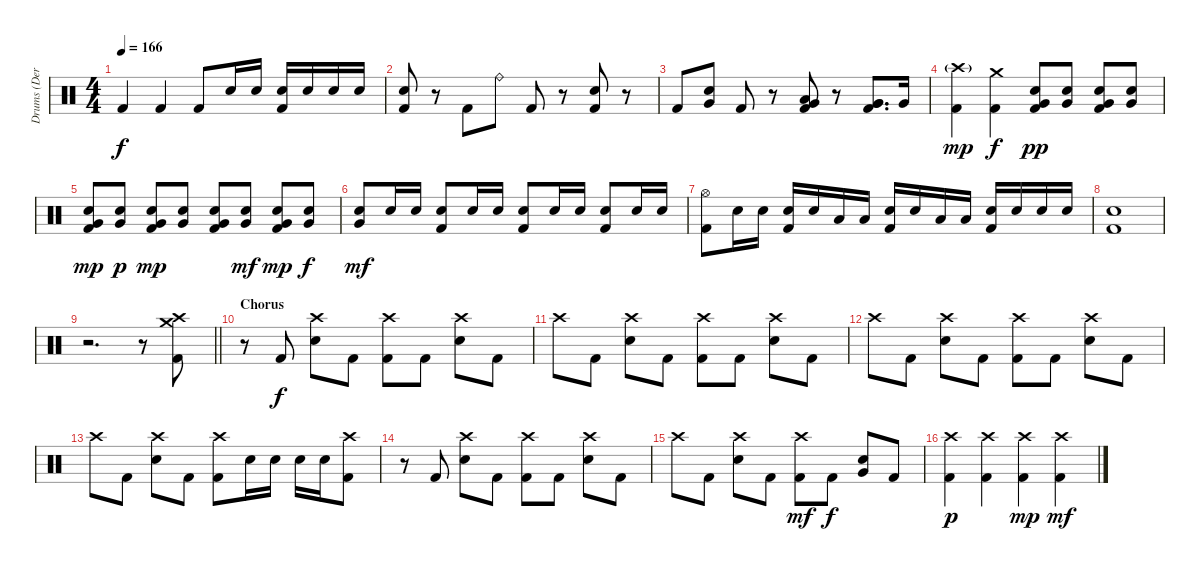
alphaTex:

\track ("Drums (Derek)" "Drums (Der") {instrument percussion}
\staff {score}
\articulation defaults
\ts (4 4)
\tempo 166
\clef neutral
\ks c "Kick (hit) 2".4{dy f} "Kick (hit) 2".4 "Kick (hit) 2".8 "Electric Snare (hit)".16 "Electric Snare (hit)".16
("Electric Snare (hit)" "Kick (hit) 2").16 "Electric Snare (hit)".16 "Electric Snare (hit)".16 "Electric Snare (hit)".16 |
("Electric Snare (hit)" "Kick (hit) 2").8 r.8 "Kick (hit) 2".8 "Ride (bell)".8 "Kick (hit) 2".8 r.8 ("Electric Snare (hit)" "Kick (hit) 2").8 r.8 |
"Kick (hit) 2".8 ("Very Low Tom (hit)" "Electric Snare (hit)").8 "Kick (hit) 2".8 r.8 ("Very Low Tom (hit)" "Low Tom (hit)" "Kick (hit) 2").8 r.8 ("Very Low Tom (hit)" "Very Low Tom (hit)" "Kick (hit) 2").8{d} "Very Low Tom (hit)".16 |
("Crash high (hit)"{g} "Kick (hit) 2").4{dy mp} ("Crash medium (hit)" "Kick (hit) 2").4{dy f} ("Very Low Tom (hit)" "Electric Snare (hit)" "Kick (hit) 2").8{dy pp} ("Very Low Tom (hit)" "Electric Snare (hit)").8 ("Very Low Tom (hit)" "Electric Snare (hit)" "Kick (hit) 2").8 ("Very Low Tom (hit)" "Electric Snare (hit)").8 |
("Very Low Tom (hit)" "Electric Snare (hit)" "Kick (hit) 2").8{dy mp} ("Very Low Tom (hit)" "Electric Snare (hit)").8{dy p} ("Very Low Tom (hit)" "Electric Snare (hit)" "Kick (hit) 2").8{dy mp} ("Very Low Tom (hit)" "Electric Snare (hit)").8 ("Very Low Tom (hit)" "Electric Snare (hit)" "Kick (hit) 2").8 ("Very Low Tom (hit)" "Electric Snare (hit)").8{dy mf} ("Very Low Tom (hit)" "Electric Snare (hit)" "Kick (hit) 2").8{dy mp} ("Very Low Tom (hit)" "Electric Snare (hit)").8{dy f} |
("Very Low Tom (hit)" "Electric Snare (hit)").8{dy mf} "Electric Snare (hit)".16 "Electric Snare (hit)".16 ("Electric Snare (hit)" "Kick (hit) 2").8 "Electric Snare (hit)".16 "Electric Snare (hit)".16 ("Electric Snare (hit)" "Kick (hit) 2").8 "Electric Snare (hit)".16 "Electric Snare (hit)".16 ("Electric Snare (hit)" "Kick (hit) 2").8 "Electric Snare (hit)".16 "Electric Snare (hit)".16 |
("Hi-Hat (open)" "Kick (hit) 2").8 "Electric Snare (hit)".16 "Electric Snare (hit)".16 ("Electric Snare (hit)" "Kick (hit) 2").16 "Electric Snare (hit)".16 "Low Tom (hit)".16 "Low Tom (hit)".16 ("Electric Snare (hit)" "Kick (hit) 2").16 "Electric Snare (hit)".16 "Low Tom (hit)".16 "Low Tom (hit)".16 ("Electric Snare (hit)" "Kick (hit) 2").16 "Electric Snare (hit)".16 "Electric Snare (hit)".16 "Electric Snare (hit)".16 |
("Electric Snare (hit)" "Kick (hit) 2").1 |
\barLineRight lightlight
r.2{d} r.8 ("Crash high (hit)" "Crash medium (hit)" "Kick (hit) 2").8 |
\section ("" "Chorus")
r.8 "Kick (hit) 2".8{dy f} ("Crash high (hit)" "Electric Snare (hit)").8 "Kick (hit) 2".8 ("Crash high (hit)" "Kick (hit) 2").8 "Kick (hit) 2".8 ("Crash high (hit)" "Electric Snare (hit)").8 "Kick (hit) 2".8 |
"Crash high (hit)".8 "Kick (hit) 2".8 ("Crash high (hit)" "Electric Snare (hit)").8 "Kick (hit) 2".8 ("Crash high (hit)" "Kick (hit) 2").8 "Kick (hit) 2".8 ("Crash high (hit)" "Electric Snare (hit)").8 "Kick (hit) 2".8 |
"Crash high (hit)".8 "Kick (hit) 2".8 ("Crash high (hit)" "Electric Snare (hit)").8 "Kick (hit) 2".8 ("Crash high (hit)" "Kick (hit) 2").8 "Kick (hit) 2".8 ("Crash high (hit)" "Electric Snare (hit)").8 "Kick (hit) 2".8 |
"Crash high (hit)".8 "Kick (hit) 2".8 ("Crash high (hit)" "Electric Snare (hit)").8 "Kick (hit) 2".8 ("Crash high (hit)" "Kick (hit) 2").8 "Electric Snare (hit)".16 "Electric Snare (hit)".16 "Electric Snare (hit)".16 "Electric Snare (hit)".16 ("Crash high (hit)" "Kick (hit) 2").8 |
r.8 "Kick (hit) 2".8 ("Crash high (hit)" "Electric Snare (hit)").8 "Kick (hit) 2".8 ("Crash high (hit)" "Kick (hit) 2").8 "Kick (hit) 2".8 ("Crash high (hit)" "Electric Snare (hit)").8 "Kick (hit) 2".8 |
"Crash high (hit)".8 "Kick (hit) 2".8 ("Crash high (hit)" "Electric Snare (hit)").8 "Kick (hit) 2".8 ("Crash high (hit)" "Kick (hit) 2").8{dy mf} "Kick (hit) 2".8{dy f} ("Very Low Tom (hit)" "Electric Snare (hit)").8 "Kick (hit) 2".8 |
("Crash high (hit)" "Kick (hit) 2").4{dy p} ("Crash high (hit)" "Kick (hit) 2").4 ("Crash high (hit)" "Kick (hit) 2").4{dy mp} ("Crash high (hit)" "Kick (hit) 2").4{dy mf}
